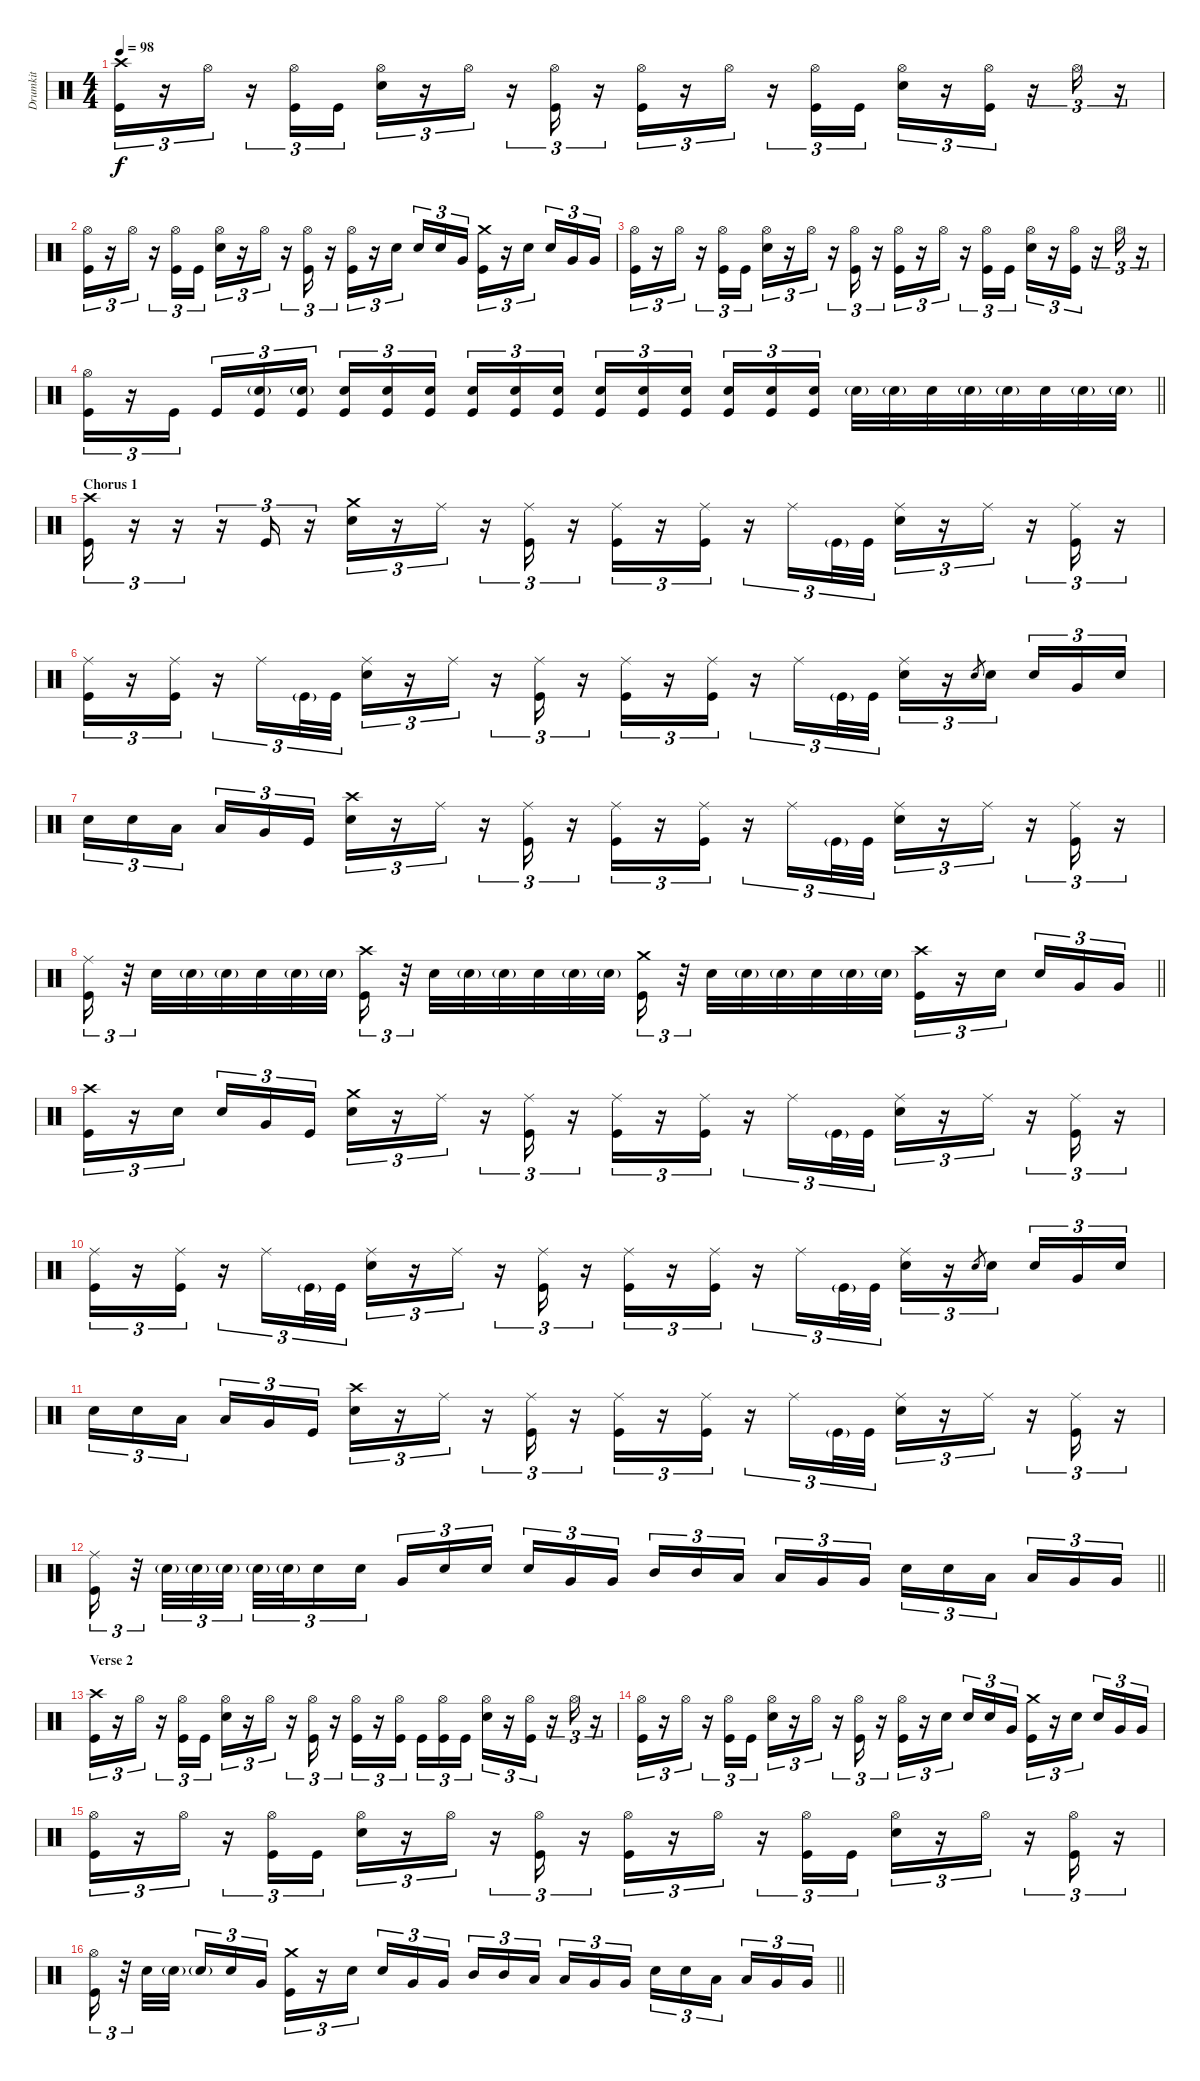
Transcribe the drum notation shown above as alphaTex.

\track ("Drumkit" "Drumkit") {instrument percussion}
\staff {score}
\articulation defaults
\ts (4 4)
\tempo 98
\clef neutral
\ks c
("Kick (hit)" "Crash high (hit)").16{tu (3 2) dy f} r.16{tu (3 2)} "Hi-Hat (open)".16{tu (3 2)} r.16{tu (3 2)} ("Hi-Hat (open)" "Kick (hit)").16{tu (3 2)} "Kick (hit)".16{tu (3 2)} ("Snare (hit) 2" "Hi-Hat (open)").16{tu (3 2)} r.16{tu (3 2)} "Hi-Hat (open)".16{tu (3 2)} r.16{tu (3 2)} ("Kick (hit)" "Hi-Hat (open)").16{tu (3 2)} r.16{tu (3 2)} ("Kick (hit)" "Hi-Hat (open)").16{tu (3 2)} r.16{tu (3 2)} "Hi-Hat (open)".16{tu (3 2)} r.16{tu (3 2)} ("Kick (hit)" "Hi-Hat (open)").16{tu (3 2)} "Kick (hit)".16{tu (3 2)} ("Hi-Hat (open)" "Snare (hit) 2").16{tu (3 2)} r.16{tu (3 2)} ("Kick (hit)" "Hi-Hat (open)").16{tu (3 2)} r.16{tu (3 2)} "Hi-Hat (open)".16{tu (3 2)} r.16{tu (3 2)} |
("Kick (hit)" "Hi-Hat (open)").16{tu (3 2)} r.16{tu (3 2)} "Hi-Hat (open)".16{tu (3 2)} r.16{tu (3 2)} ("Kick (hit)" "Hi-Hat (open)").16{tu (3 2)} "Kick (hit)".16{tu (3 2)} ("Snare (hit) 2" "Hi-Hat (open)").16{tu (3 2)} r.16{tu (3 2)} "Hi-Hat (open)".16{tu (3 2)} r.16{tu (3 2)} ("Kick (hit)" "Hi-Hat (open)").16{tu (3 2)} r.16{tu (3 2)} ("Kick (hit)" "Hi-Hat (open)").16{tu (3 2)} r.16{tu (3 2)} "Snare (hit) 2".16{tu (3 2)} "Snare (hit) 2".16{tu (3 2)} "Snare (hit) 2".16{tu (3 2)} "Very Low Tom (hit)".16{tu (3 2)} ("Kick (hit)" "Crash medium (hit)").16{tu (3 2)} r.16{tu (3 2)} "Snare (hit) 2".16{tu (3 2)} "Snare (hit) 2".16{tu (3 2)} "Very Low Tom (hit)".16{tu (3 2)} "Very Low Tom (hit)".16{tu (3 2)} |
("Kick (hit)" "Hi-Hat (open)").16{tu (3 2)} r.16{tu (3 2)} "Hi-Hat (open)".16{tu (3 2)} r.16{tu (3 2)} ("Kick (hit)" "Hi-Hat (open)").16{tu (3 2)} "Kick (hit)".16{tu (3 2)} ("Snare (hit) 2" "Hi-Hat (open)").16{tu (3 2)} r.16{tu (3 2)} "Hi-Hat (open)".16{tu (3 2)} r.16{tu (3 2)} ("Kick (hit)" "Hi-Hat (open)").16{tu (3 2)} r.16{tu (3 2)} ("Kick (hit)" "Hi-Hat (open)").16{tu (3 2)} r.16{tu (3 2)} "Hi-Hat (open)".16{tu (3 2)} r.16{tu (3 2)} ("Kick (hit)" "Hi-Hat (open)").16{tu (3 2)} "Kick (hit)".16{tu (3 2)} ("Hi-Hat (open)" "Snare (hit) 2").16{tu (3 2)} r.16{tu (3 2)} ("Kick (hit)" "Hi-Hat (open)").16{tu (3 2)} r.16{tu (3 2)} "Hi-Hat (open)".16{tu (3 2)} r.16{tu (3 2)} |
\barLineRight lightlight
("Kick (hit)" "Hi-Hat (open)").16{tu (3 2)} r.16{tu (3 2)} "Kick (hit)".16{tu (3 2)} "Kick (hit)".16{tu (3 2)} ("Kick (hit)" "Snare (hit) 2"{g}).16{tu (3 2)} ("Kick (hit)" "Snare (hit) 2"{g}).16{tu (3 2)} ("Snare (hit) 2" "Kick (hit)").16{tu (3 2)} ("Kick (hit)" "Snare (hit) 2").16{tu (3 2)} ("Kick (hit)" "Snare (hit) 2").16{tu (3 2)} ("Kick (hit)" "Snare (hit) 2").16{tu (3 2)} ("Kick (hit)" "Snare (hit) 2").16{tu (3 2)} ("Kick (hit)" "Snare (hit) 2").16{tu (3 2)} ("Kick (hit)" "Snare (hit) 2").16{tu (3 2)} ("Snare (hit) 2" "Kick (hit)").16{tu (3 2)} ("Kick (hit)" "Snare (hit) 2").16{tu (3 2)} ("Kick (hit)" "Snare (hit) 2").16{tu (3 2)} ("Kick (hit)" "Snare (hit) 2").16{tu (3 2)} ("Kick (hit)" "Snare (hit) 2").16{tu (3 2)} "Snare (hit) 2"{g}.32 "Snare (hit) 2"{g}.32 "Snare (hit) 2".32 "Snare (hit) 2"{g}.32 "Snare (hit) 2"{g}.32 "Snare (hit) 2".32 "Snare (hit) 2"{g}.32 "Snare (hit) 2"{g}.32 |
\section ("" "Chorus 1")
("Kick (hit)" "Crash high (hit)").16{tu (3 2)} r.16{tu (3 2)} r.16{tu (3 2)} r.16{tu (3 2)} "Kick (hit)".16{tu (3 2)} r.16{tu (3 2)} ("Snare (hit) 2" "Crash medium (hit)").16{tu (3 2)} r.16{tu (3 2)} "Ride (middle)".16{tu (3 2)} r.16{tu (3 2)} ("Kick (hit)" "Ride (middle)").16{tu (3 2)} r.16{tu (3 2)} ("Kick (hit)" "Ride (middle)").16{tu (3 2)} r.16{tu (3 2)} ("Ride (middle)" "Kick (hit)").16{tu (3 2)} r.16{tu (3 2)} "Ride (middle)".16{tu (3 2)} "Kick (hit)"{g}.32{tu (3 2)} "Kick (hit)".32{tu (3 2)} ("Ride (middle)" "Snare (hit) 2").16{tu (3 2)} r.16{tu (3 2)} "Ride (middle)".16{tu (3 2)} r.16{tu (3 2)} ("Ride (middle)" "Kick (hit)").16{tu (3 2)} r.16{tu (3 2)} |
("Kick (hit)" "Ride (middle)").16{tu (3 2)} r.16{tu (3 2)} ("Ride (middle)" "Kick (hit)").16{tu (3 2)} r.16{tu (3 2)} "Ride (middle)".16{tu (3 2)} "Kick (hit)"{g}.32{tu (3 2)} "Kick (hit)".32{tu (3 2)} ("Snare (hit) 2" "Ride (middle)").16{tu (3 2)} r.16{tu (3 2)} "Ride (middle)".16{tu (3 2)} r.16{tu (3 2)} ("Kick (hit)" "Ride (middle)").16{tu (3 2)} r.16{tu (3 2)} ("Kick (hit)" "Ride (middle)").16{tu (3 2)} r.16{tu (3 2)} ("Kick (hit)" "Ride (middle)").16{tu (3 2)} r.16{tu (3 2)} "Ride (middle)".16{tu (3 2)} "Kick (hit)"{g}.32{tu (3 2)} "Kick (hit)".32{tu (3 2)} ("Ride (middle)" "Snare (hit) 2").16{tu (3 2)} r.16{tu (3 2)} "Snare (hit)".8{gr} "Snare (hit) 2".16{tu (3 2)} "Snare (hit) 2".16{tu (3 2)} "Very Low Tom (hit)".16{tu (3 2)} "Snare (hit) 2".16{tu (3 2)} |
"Snare (hit) 2".16{tu (3 2)} "Snare (hit) 2".16{tu (3 2)} "Low Tom (hit)".16{tu (3 2)} "Low Tom (hit)".16{tu (3 2)} "Very Low Tom (hit)".16{tu (3 2)} "Kick (hit)".16{tu (3 2)} ("Snare (hit) 2" "Crash high (hit)").16{tu (3 2)} r.16{tu (3 2)} "Ride (middle)".16{tu (3 2)} r.16{tu (3 2)} ("Kick (hit)" "Ride (middle)").16{tu (3 2)} r.16{tu (3 2)} ("Kick (hit)" "Ride (middle)").16{tu (3 2)} r.16{tu (3 2)} ("Ride (middle)" "Kick (hit)").16{tu (3 2)} r.16{tu (3 2)} "Ride (middle)".16{tu (3 2)} "Kick (hit)"{g}.32{tu (3 2)} "Kick (hit)".32{tu (3 2)} ("Ride (middle)" "Snare (hit) 2").16{tu (3 2)} r.16{tu (3 2)} "Ride (middle)".16{tu (3 2)} r.16{tu (3 2)} ("Ride (middle)" "Kick (hit)").16{tu (3 2)} r.16{tu (3 2)} |
\barLineRight lightlight
("Kick (hit)" "Ride (middle)").16{tu (3 2)} r.32{tu (3 2)} "Snare (hit) 2".32 "Snare (hit) 2"{g}.32 "Snare (hit) 2"{g}.32 "Snare (hit) 2".32 "Snare (hit) 2"{g}.32 "Snare (hit) 2"{g}.32 ("Kick (hit)" "Crash high (hit)").16{tu (3 2)} r.32{tu (3 2)} "Snare (hit) 2".32 "Snare (hit) 2"{g}.32 "Snare (hit) 2"{g}.32 "Snare (hit) 2".32 "Snare (hit) 2"{g}.32 "Snare (hit) 2"{g}.32 ("Kick (hit)" "Crash medium (hit)").16{tu (3 2)} r.32{tu (3 2)} "Snare (hit) 2".32 "Snare (hit) 2"{g}.32 "Snare (hit) 2"{g}.32 "Snare (hit) 2".32 "Snare (hit) 2"{g}.32 "Snare (hit) 2"{g}.32 ("Kick (hit)" "Crash high (hit)").16{tu (3 2)} r.16{tu (3 2)} "Snare (hit) 2".16{tu (3 2)} "Snare (hit) 2".16{tu (3 2)} "Very Low Tom (hit)".16{tu (3 2)} "Very Low Tom (hit)".16{tu (3 2)} |
("Kick (hit)" "Crash high (hit)").16{tu (3 2)} r.16{tu (3 2)} "Snare (hit) 2".16{tu (3 2)} "Snare (hit) 2".16{tu (3 2)} "Very Low Tom (hit)".16{tu (3 2)} "Kick (hit)".16{tu (3 2)} ("Snare (hit) 2" "Crash medium (hit)").16{tu (3 2)} r.16{tu (3 2)} "Ride (middle)".16{tu (3 2)} r.16{tu (3 2)} ("Kick (hit)" "Ride (middle)").16{tu (3 2)} r.16{tu (3 2)} ("Kick (hit)" "Ride (middle)").16{tu (3 2)} r.16{tu (3 2)} ("Ride (middle)" "Kick (hit)").16{tu (3 2)} r.16{tu (3 2)} "Ride (middle)".16{tu (3 2)} "Kick (hit)"{g}.32{tu (3 2)} "Kick (hit)".32{tu (3 2)} ("Ride (middle)" "Snare (hit) 2").16{tu (3 2)} r.16{tu (3 2)} "Ride (middle)".16{tu (3 2)} r.16{tu (3 2)} ("Ride (middle)" "Kick (hit)").16{tu (3 2)} r.16{tu (3 2)} |
("Kick (hit)" "Ride (middle)").16{tu (3 2)} r.16{tu (3 2)} ("Ride (middle)" "Kick (hit)").16{tu (3 2)} r.16{tu (3 2)} "Ride (middle)".16{tu (3 2)} "Kick (hit)"{g}.32{tu (3 2)} "Kick (hit)".32{tu (3 2)} ("Snare (hit) 2" "Ride (middle)").16{tu (3 2)} r.16{tu (3 2)} "Ride (middle)".16{tu (3 2)} r.16{tu (3 2)} ("Kick (hit)" "Ride (middle)").16{tu (3 2)} r.16{tu (3 2)} ("Kick (hit)" "Ride (middle)").16{tu (3 2)} r.16{tu (3 2)} ("Kick (hit)" "Ride (middle)").16{tu (3 2)} r.16{tu (3 2)} "Ride (middle)".16{tu (3 2)} "Kick (hit)"{g}.32{tu (3 2)} "Kick (hit)".32{tu (3 2)} ("Ride (middle)" "Snare (hit) 2").16{tu (3 2)} r.16{tu (3 2)} "Snare (hit)".8{gr} "Snare (hit) 2".16{tu (3 2)} "Snare (hit) 2".16{tu (3 2)} "Very Low Tom (hit)".16{tu (3 2)} "Snare (hit) 2".16{tu (3 2)} |
"Snare (hit) 2".16{tu (3 2)} "Snare (hit) 2".16{tu (3 2)} "Low Tom (hit)".16{tu (3 2)} "Low Tom (hit)".16{tu (3 2)} "Very Low Tom (hit)".16{tu (3 2)} "Kick (hit)".16{tu (3 2)} ("Snare (hit) 2" "Crash high (hit)").16{tu (3 2)} r.16{tu (3 2)} "Ride (middle)".16{tu (3 2)} r.16{tu (3 2)} ("Kick (hit)" "Ride (middle)").16{tu (3 2)} r.16{tu (3 2)} ("Kick (hit)" "Ride (middle)").16{tu (3 2)} r.16{tu (3 2)} ("Ride (middle)" "Kick (hit)").16{tu (3 2)} r.16{tu (3 2)} "Ride (middle)".16{tu (3 2)} "Kick (hit)"{g}.32{tu (3 2)} "Kick (hit)".32{tu (3 2)} ("Ride (middle)" "Snare (hit) 2").16{tu (3 2)} r.16{tu (3 2)} "Ride (middle)".16{tu (3 2)} r.16{tu (3 2)} ("Ride (middle)" "Kick (hit)").16{tu (3 2)} r.16{tu (3 2)} |
\barLineRight lightlight
("Kick (hit)" "Ride (middle)").16{tu (3 2)} r.32{tu (3 2)} "Snare (hit) 2"{g}.32{tu (3 2)} "Snare (hit) 2"{g}.32{tu (3 2)} "Snare (hit) 2"{g}.32{tu (3 2)} "Snare (hit) 2"{g}.32{tu (3 2)} "Snare (hit) 2"{g}.32{tu (3 2)} "Snare (hit) 2".16{tu (3 2)} "Snare (hit) 2".16{tu (3 2)} "Very Low Tom (hit)".16{tu (3 2)} "Snare (hit) 2".16{tu (3 2)} "Snare (hit) 2".16{tu (3 2)} "Snare (hit) 2".16{tu (3 2)} "Very Low Tom (hit)".16{tu (3 2)} "Very Low Tom (hit)".16{tu (3 2)} "Mid Tom (hit)".16{tu (3 2)} "Mid Tom (hit)".16{tu (3 2)} "Low Tom (hit)".16{tu (3 2)} "Low Tom (hit)".16{tu (3 2)} "Very Low Tom (hit)".16{tu (3 2)} "Very Low Tom (hit)".16{tu (3 2)} "Snare (hit) 2".16{tu (3 2)} "Snare (hit) 2".16{tu (3 2)} "Low Tom (hit)".16{tu (3 2)} "Low Tom (hit)".16{tu (3 2)} "Very Low Tom (hit)".16{tu (3 2)} "Very Low Tom (hit)".16{tu (3 2)} |
\section ("" "Verse 2")
("Kick (hit)" "Crash high (hit)").16{tu (3 2)} r.16{tu (3 2)} "Hi-Hat (open)".16{tu (3 2)} r.16{tu (3 2)} ("Hi-Hat (open)" "Kick (hit)").16{tu (3 2)} "Kick (hit)".16{tu (3 2)} ("Snare (hit) 2" "Hi-Hat (open)").16{tu (3 2)} r.16{tu (3 2)} "Hi-Hat (open)".16{tu (3 2)} r.16{tu (3 2)} ("Kick (hit)" "Hi-Hat (open)").16{tu (3 2)} r.16{tu (3 2)} ("Kick (hit)" "Hi-Hat (open)").16{tu (3 2)} r.16{tu (3 2)} ("Hi-Hat (open)" "Kick (hit)").16{tu (3 2)} "Kick (hit)".16{tu (3 2)} ("Kick (hit)" "Hi-Hat (open)").16{tu (3 2)} "Kick (hit)".16{tu (3 2)} ("Hi-Hat (open)" "Snare (hit) 2").16{tu (3 2)} r.16{tu (3 2)} ("Kick (hit)" "Hi-Hat (open)").16{tu (3 2)} r.16{tu (3 2)} "Hi-Hat (open)".16{tu (3 2)} r.16{tu (3 2)} |
("Kick (hit)" "Hi-Hat (open)").16{tu (3 2)} r.16{tu (3 2)} "Hi-Hat (open)".16{tu (3 2)} r.16{tu (3 2)} ("Kick (hit)" "Hi-Hat (open)").16{tu (3 2)} "Kick (hit)".16{tu (3 2)} ("Snare (hit) 2" "Hi-Hat (open)").16{tu (3 2)} r.16{tu (3 2)} "Hi-Hat (open)".16{tu (3 2)} r.16{tu (3 2)} ("Kick (hit)" "Hi-Hat (open)").16{tu (3 2)} r.16{tu (3 2)} ("Kick (hit)" "Hi-Hat (open)").16{tu (3 2)} r.16{tu (3 2)} "Snare (hit) 2".16{tu (3 2)} "Snare (hit) 2".16{tu (3 2)} "Snare (hit) 2".16{tu (3 2)} "Very Low Tom (hit)".16{tu (3 2)} ("Kick (hit)" "Crash medium (hit)").16{tu (3 2)} r.16{tu (3 2)} "Snare (hit) 2".16{tu (3 2)} "Snare (hit) 2".16{tu (3 2)} "Very Low Tom (hit)".16{tu (3 2)} "Very Low Tom (hit)".16{tu (3 2)} |
("Kick (hit)" "Hi-Hat (open)").16{tu (3 2)} r.16{tu (3 2)} "Hi-Hat (open)".16{tu (3 2)} r.16{tu (3 2)} ("Kick (hit)" "Hi-Hat (open)").16{tu (3 2)} "Kick (hit)".16{tu (3 2)} ("Snare (hit) 2" "Hi-Hat (open)").16{tu (3 2)} r.16{tu (3 2)} "Hi-Hat (open)".16{tu (3 2)} r.16{tu (3 2)} ("Kick (hit)" "Hi-Hat (open)").16{tu (3 2)} r.16{tu (3 2)} ("Kick (hit)" "Hi-Hat (open)").16{tu (3 2)} r.16{tu (3 2)} "Hi-Hat (open)".16{tu (3 2)} r.16{tu (3 2)} ("Kick (hit)" "Hi-Hat (open)").16{tu (3 2)} "Kick (hit)".16{tu (3 2)} ("Hi-Hat (open)" "Snare (hit) 2").16{tu (3 2)} r.16{tu (3 2)} "Hi-Hat (open)".16{tu (3 2)} r.16{tu (3 2)} ("Hi-Hat (open)" "Kick (hit)").16{tu (3 2)} r.16{tu (3 2)} |
\barLineRight lightlight
("Kick (hit)" "Hi-Hat (open)").16{tu (3 2)} r.32{tu (3 2)} "Snare (hit) 2".32 "Snare (hit) 2"{g}.32 "Snare (hit) 2"{g}.16{tu (3 2)} "Snare (hit) 2".16{tu (3 2)} "Very Low Tom (hit)".16{tu (3 2)} ("Kick (hit)" "Crash medium (hit)").16{tu (3 2)} r.16{tu (3 2)} "Snare (hit) 2".16{tu (3 2)} "Snare (hit) 2".16{tu (3 2)} "Very Low Tom (hit)".16{tu (3 2)} "Very Low Tom (hit)".16{tu (3 2)} "Mid Tom (hit)".16{tu (3 2)} "Mid Tom (hit)".16{tu (3 2)} "Low Tom (hit)".16{tu (3 2)} "Low Tom (hit)".16{tu (3 2)} "Very Low Tom (hit)".16{tu (3 2)} "Very Low Tom (hit)".16{tu (3 2)} "Snare (hit) 2".16{tu (3 2)} "Snare (hit) 2".16{tu (3 2)} "Low Tom (hit)".16{tu (3 2)} "Low Tom (hit)".16{tu (3 2)} "Very Low Tom (hit)".16{tu (3 2)} "Very Low Tom (hit)".16{tu (3 2)}
